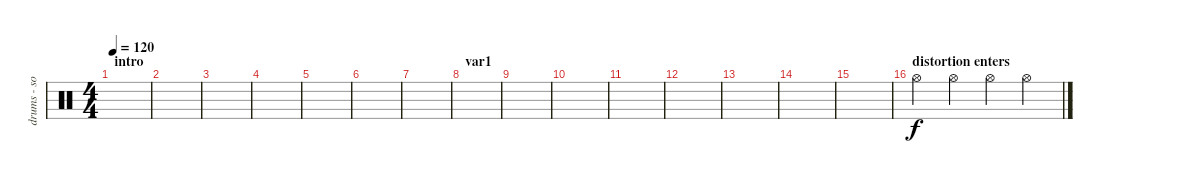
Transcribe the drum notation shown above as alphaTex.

\track ("drums - someone maybe miki" "drums - so") {instrument percussion}
\staff {score}
\articulation defaults
\ts (4 4)
\section ("" "intro")
\tempo 120
\clef neutral
\ks c
|
|
|
|
|
|
|
\section ("" "var1")
|
|
|
|
|
|
|
|
\section ("" "distortion enters")
"Hi-Hat (open)".4 "Hi-Hat (open)".4 "Hi-Hat (open)".4 "Hi-Hat (open)".4
